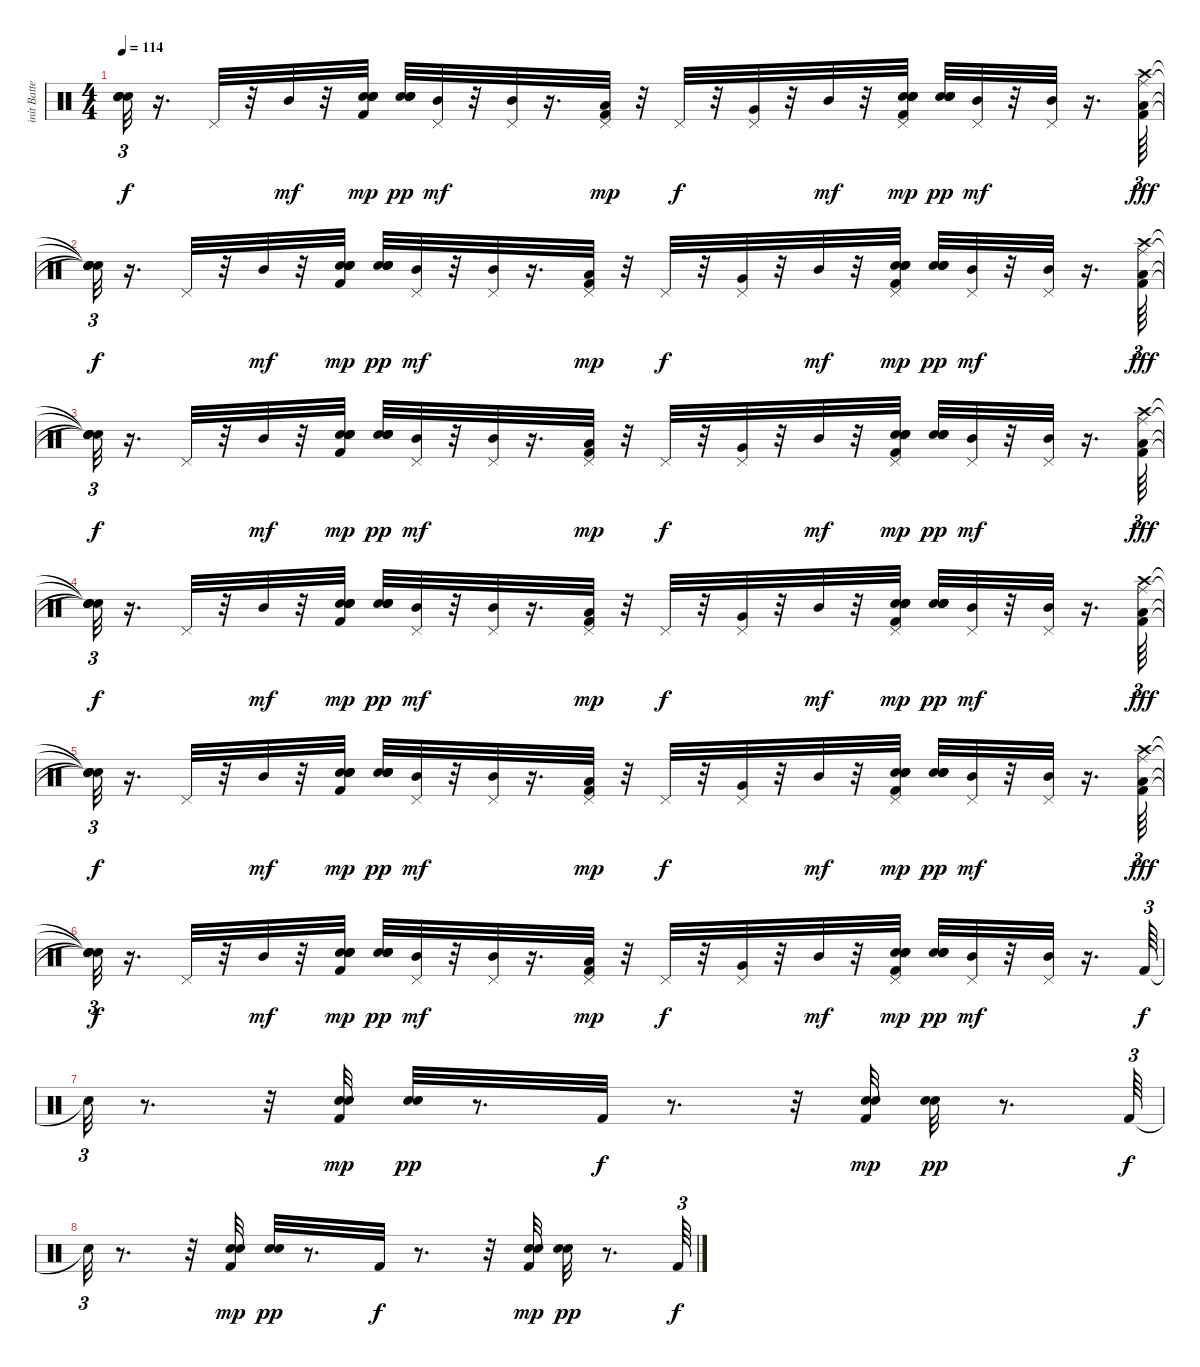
\track ("init Batterie" "init Batte") {instrument percussion}
\staff {score}
\articulation defaults
\ts (4 4)
\tempo 114
\clef neutral
\ks c
("Snare (hit)"{t} "Snare (hit)"{t} "Snare (hit)"{t} "Snare (hit)"{t}).32{tu (3 2) dy f} r.16{d} "Pedal Hi-Hat (hit)".32 r.32 "Mid Tom (hit)".32{dy mf} r.32 ("Snare (hit) 2" "Hand Clap (hit)" "Kick (hit) 2" "Snare (hit) 2" "Hand Clap (hit)").32{dy mp} ("Snare (hit) 2" "Snare (hit) 2" "Hand Clap (hit)" "Hand Clap (hit)").32{dy pp} ("Pedal Hi-Hat (hit)" "Mid Tom (hit)").32{dy mf} r.32 ("Pedal Hi-Hat (hit)" "Mid Tom (hit)").32 r.16{d} ("Kick (hit) 2" "Pedal Hi-Hat (hit)" "Low Tom (hit)").32{dy mp} r.32 "Pedal Hi-Hat (hit)".32{dy f} r.32 ("Very Low Tom (hit)" "Pedal Hi-Hat (hit)").32 r.32 "Mid Tom (hit)".32{dy mf} r.32 ("Snare (hit) 2" "Hand Clap (hit)" "Kick (hit) 2" "Snare (hit) 2" "Hand Clap (hit)" "Pedal Hi-Hat (hit)").32{dy mp} ("Snare (hit) 2" "Snare (hit) 2" "Hand Clap (hit)" "Hand Clap (hit)").32{dy pp} ("Pedal Hi-Hat (hit)" "Mid Tom (hit)").32{dy mf} r.32 ("Pedal Hi-Hat (hit)" "Mid Tom (hit)").32 r.16{d} ("Kick (hit) 2" "Low Tom (hit)" "Crash high (hit)" "Ride (middle)").64{tu (3 2) dy fff} |
("Snare (hit)"{t} "Snare (hit)"{t} "Snare (hit)"{t} "Snare (hit)"{t}).32{tu (3 2) dy f} r.16{d} "Pedal Hi-Hat (hit)".32 r.32 "Mid Tom (hit)".32{dy mf} r.32 ("Snare (hit) 2" "Hand Clap (hit)" "Kick (hit) 2" "Snare (hit) 2" "Hand Clap (hit)").32{dy mp} ("Snare (hit) 2" "Snare (hit) 2" "Hand Clap (hit)" "Hand Clap (hit)").32{dy pp} ("Pedal Hi-Hat (hit)" "Mid Tom (hit)").32{dy mf} r.32 ("Pedal Hi-Hat (hit)" "Mid Tom (hit)").32 r.16{d} ("Kick (hit) 2" "Pedal Hi-Hat (hit)" "Low Tom (hit)").32{dy mp} r.32 "Pedal Hi-Hat (hit)".32{dy f} r.32 ("Very Low Tom (hit)" "Pedal Hi-Hat (hit)").32 r.32 "Mid Tom (hit)".32{dy mf} r.32 ("Snare (hit) 2" "Hand Clap (hit)" "Kick (hit) 2" "Snare (hit) 2" "Hand Clap (hit)" "Pedal Hi-Hat (hit)").32{dy mp} ("Snare (hit) 2" "Snare (hit) 2" "Hand Clap (hit)" "Hand Clap (hit)").32{dy pp} ("Pedal Hi-Hat (hit)" "Mid Tom (hit)").32{dy mf} r.32 ("Pedal Hi-Hat (hit)" "Mid Tom (hit)").32 r.16{d} ("Kick (hit) 2" "Low Tom (hit)" "Crash high (hit)" "Ride (middle)").64{tu (3 2) dy fff} |
("Snare (hit)"{t} "Snare (hit)"{t} "Snare (hit)"{t} "Snare (hit)"{t}).32{tu (3 2) dy f} r.16{d} "Pedal Hi-Hat (hit)".32 r.32 "Mid Tom (hit)".32{dy mf} r.32 ("Snare (hit) 2" "Hand Clap (hit)" "Kick (hit) 2" "Snare (hit) 2" "Hand Clap (hit)").32{dy mp} ("Snare (hit) 2" "Snare (hit) 2" "Hand Clap (hit)" "Hand Clap (hit)").32{dy pp} ("Pedal Hi-Hat (hit)" "Mid Tom (hit)").32{dy mf} r.32 ("Pedal Hi-Hat (hit)" "Mid Tom (hit)").32 r.16{d} ("Kick (hit) 2" "Pedal Hi-Hat (hit)" "Low Tom (hit)").32{dy mp} r.32 "Pedal Hi-Hat (hit)".32{dy f} r.32 ("Very Low Tom (hit)" "Pedal Hi-Hat (hit)").32 r.32 "Mid Tom (hit)".32{dy mf} r.32 ("Snare (hit) 2" "Hand Clap (hit)" "Kick (hit) 2" "Snare (hit) 2" "Hand Clap (hit)" "Pedal Hi-Hat (hit)").32{dy mp} ("Snare (hit) 2" "Snare (hit) 2" "Hand Clap (hit)" "Hand Clap (hit)").32{dy pp} ("Pedal Hi-Hat (hit)" "Mid Tom (hit)").32{dy mf} r.32 ("Pedal Hi-Hat (hit)" "Mid Tom (hit)").32 r.16{d} ("Kick (hit) 2" "Low Tom (hit)" "Crash high (hit)" "Ride (middle)").64{tu (3 2) dy fff} |
("Snare (hit)"{t} "Snare (hit)"{t} "Snare (hit)"{t} "Snare (hit)"{t}).32{tu (3 2) dy f} r.16{d} "Pedal Hi-Hat (hit)".32 r.32 "Mid Tom (hit)".32{dy mf} r.32 ("Snare (hit) 2" "Hand Clap (hit)" "Kick (hit) 2" "Snare (hit) 2" "Hand Clap (hit)").32{dy mp} ("Snare (hit) 2" "Snare (hit) 2" "Hand Clap (hit)" "Hand Clap (hit)").32{dy pp} ("Pedal Hi-Hat (hit)" "Mid Tom (hit)").32{dy mf} r.32 ("Pedal Hi-Hat (hit)" "Mid Tom (hit)").32 r.16{d} ("Kick (hit) 2" "Pedal Hi-Hat (hit)" "Low Tom (hit)").32{dy mp} r.32 "Pedal Hi-Hat (hit)".32{dy f} r.32 ("Very Low Tom (hit)" "Pedal Hi-Hat (hit)").32 r.32 "Mid Tom (hit)".32{dy mf} r.32 ("Snare (hit) 2" "Hand Clap (hit)" "Kick (hit) 2" "Snare (hit) 2" "Hand Clap (hit)" "Pedal Hi-Hat (hit)").32{dy mp} ("Snare (hit) 2" "Snare (hit) 2" "Hand Clap (hit)" "Hand Clap (hit)").32{dy pp} ("Pedal Hi-Hat (hit)" "Mid Tom (hit)").32{dy mf} r.32 ("Pedal Hi-Hat (hit)" "Mid Tom (hit)").32 r.16{d} ("Kick (hit) 2" "Low Tom (hit)" "Crash high (hit)" "Ride (middle)").64{tu (3 2) dy fff} |
("Snare (hit)"{t} "Snare (hit)"{t} "Snare (hit)"{t} "Snare (hit)"{t}).32{tu (3 2) dy f} r.16{d} "Pedal Hi-Hat (hit)".32 r.32 "Mid Tom (hit)".32{dy mf} r.32 ("Snare (hit) 2" "Hand Clap (hit)" "Kick (hit) 2" "Snare (hit) 2" "Hand Clap (hit)").32{dy mp} ("Snare (hit) 2" "Snare (hit) 2" "Hand Clap (hit)" "Hand Clap (hit)").32{dy pp} ("Pedal Hi-Hat (hit)" "Mid Tom (hit)").32{dy mf} r.32 ("Pedal Hi-Hat (hit)" "Mid Tom (hit)").32 r.16{d} ("Kick (hit) 2" "Pedal Hi-Hat (hit)" "Low Tom (hit)").32{dy mp} r.32 "Pedal Hi-Hat (hit)".32{dy f} r.32 ("Very Low Tom (hit)" "Pedal Hi-Hat (hit)").32 r.32 "Mid Tom (hit)".32{dy mf} r.32 ("Snare (hit) 2" "Hand Clap (hit)" "Kick (hit) 2" "Snare (hit) 2" "Hand Clap (hit)" "Pedal Hi-Hat (hit)").32{dy mp} ("Snare (hit) 2" "Snare (hit) 2" "Hand Clap (hit)" "Hand Clap (hit)").32{dy pp} ("Pedal Hi-Hat (hit)" "Mid Tom (hit)").32{dy mf} r.32 ("Pedal Hi-Hat (hit)" "Mid Tom (hit)").32 r.16{d} ("Kick (hit) 2" "Low Tom (hit)" "Crash high (hit)" "Ride (middle)").64{tu (3 2) dy fff} |
("Snare (hit)"{t} "Snare (hit)"{t} "Snare (hit)"{t} "Snare (hit)"{t}).32{tu (3 2) dy f} r.16{d} "Pedal Hi-Hat (hit)".32 r.32 "Mid Tom (hit)".32{dy mf} r.32 ("Snare (hit) 2" "Hand Clap (hit)" "Kick (hit) 2" "Snare (hit) 2" "Hand Clap (hit)").32{dy mp} ("Snare (hit) 2" "Snare (hit) 2" "Hand Clap (hit)" "Hand Clap (hit)").32{dy pp} ("Pedal Hi-Hat (hit)" "Mid Tom (hit)").32{dy mf} r.32 ("Pedal Hi-Hat (hit)" "Mid Tom (hit)").32 r.16{d} ("Kick (hit) 2" "Pedal Hi-Hat (hit)" "Low Tom (hit)").32{dy mp} r.32 "Pedal Hi-Hat (hit)".32{dy f} r.32 ("Very Low Tom (hit)" "Pedal Hi-Hat (hit)").32 r.32 "Mid Tom (hit)".32{dy mf} r.32 ("Snare (hit) 2" "Hand Clap (hit)" "Kick (hit) 2" "Snare (hit) 2" "Hand Clap (hit)" "Pedal Hi-Hat (hit)").32{dy mp} ("Snare (hit) 2" "Snare (hit) 2" "Hand Clap (hit)" "Hand Clap (hit)").32{dy pp} ("Pedal Hi-Hat (hit)" "Mid Tom (hit)").32{dy mf} r.32 ("Pedal Hi-Hat (hit)" "Mid Tom (hit)").32 r.16{d} "Kick (hit) 2".64{tu (3 2) dy f} |
"Snare (hit)"{t}.32{tu (3 2)} r.8{d} r.32 ("Hand Clap (hit)" "Kick (hit) 2" "Hand Clap (hit)").32{dy mp} ("Hand Clap (hit)" "Hand Clap (hit)").32{dy pp} r.8{d} "Kick (hit) 2".32{dy f} r.8{d} r.32 ("Hand Clap (hit)" "Kick (hit) 2" "Hand Clap (hit)").32{dy mp} ("Hand Clap (hit)" "Hand Clap (hit)").32{dy pp} r.8{d} "Kick (hit) 2".64{tu (3 2) dy f} |
"Snare (hit)"{t}.32{tu (3 2)} r.8{d} r.32 ("Hand Clap (hit)" "Kick (hit) 2" "Hand Clap (hit)").32{dy mp} ("Hand Clap (hit)" "Hand Clap (hit)").32{dy pp} r.8{d} "Kick (hit) 2".32{dy f} r.8{d} r.32 ("Hand Clap (hit)" "Kick (hit) 2" "Hand Clap (hit)").32{dy mp} ("Hand Clap (hit)" "Hand Clap (hit)").32{dy pp} r.8{d} "Kick (hit) 2".64{tu (3 2) dy f}
